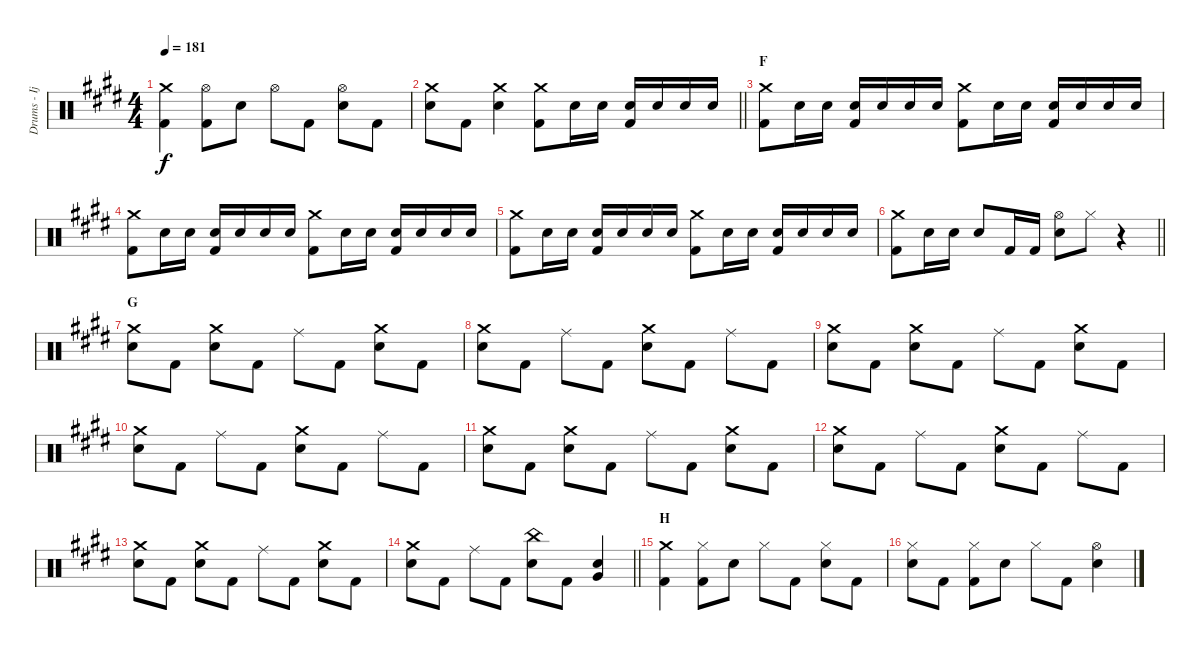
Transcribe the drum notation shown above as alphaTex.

\track ("Drums - Ijichi" "Drums - Ij") {instrument percussion}
\staff {score}
\articulation defaults
\ts (4 4)
\tempo 181
\clef neutral
\ks e
("Crash medium (hit)" "Kick (hit) 2").4{dy f} ("Hi-Hat (open)" "Kick (hit) 2").8 "Electric Snare (hit)".8 "Hi-Hat (open)".8 "Kick (hit) 2".8 ("Hi-Hat (open)" "Electric Snare (hit)").8 "Kick (hit) 2".8 |
\barLineRight lightlight
("Crash medium (hit)" "Electric Snare (hit)").8 "Kick (hit) 2".8 ("Crash medium (hit)" "Electric Snare (hit)").4 ("Crash medium (hit)" "Kick (hit) 2").8 "Electric Snare (hit)".16 "Electric Snare (hit)".16 ("Electric Snare (hit)" "Kick (hit) 2").16 "Electric Snare (hit)".16 "Electric Snare (hit)".16 "Electric Snare (hit)".16 |
\section ("" "F")
("Crash medium (hit)" "Kick (hit) 2").8 "Electric Snare (hit)".16 "Electric Snare (hit)".16 ("Electric Snare (hit)" "Kick (hit) 2").16 "Electric Snare (hit)".16 "Electric Snare (hit)".16 "Electric Snare (hit)".16 ("Crash medium (hit)" "Kick (hit) 2").8 "Electric Snare (hit)".16 "Electric Snare (hit)".16 ("Electric Snare (hit)" "Kick (hit) 2").16 "Electric Snare (hit)".16 "Electric Snare (hit)".16 "Electric Snare (hit)".16 |
("Crash medium (hit)" "Kick (hit) 2").8 "Electric Snare (hit)".16 "Electric Snare (hit)".16 ("Electric Snare (hit)" "Kick (hit) 2").16 "Electric Snare (hit)".16 "Electric Snare (hit)".16 "Electric Snare (hit)".16 ("Crash medium (hit)" "Kick (hit) 2").8 "Electric Snare (hit)".16 "Electric Snare (hit)".16 ("Electric Snare (hit)" "Kick (hit) 2").16 "Electric Snare (hit)".16 "Electric Snare (hit)".16 "Electric Snare (hit)".16 |
("Crash medium (hit)" "Kick (hit) 2").8 "Electric Snare (hit)".16 "Electric Snare (hit)".16 ("Electric Snare (hit)" "Kick (hit) 2").16 "Electric Snare (hit)".16 "Electric Snare (hit)".16 "Electric Snare (hit)".16 ("Crash medium (hit)" "Kick (hit) 2").8 "Electric Snare (hit)".16 "Electric Snare (hit)".16 ("Electric Snare (hit)" "Kick (hit) 2").16 "Electric Snare (hit)".16 "Electric Snare (hit)".16 "Electric Snare (hit)".16 |
\barLineRight lightlight
("Crash medium (hit)" "Kick (hit) 2").8 "Electric Snare (hit)".16 "Electric Snare (hit)".16 "Electric Snare (hit)".8 "Kick (hit) 2".16 "Kick (hit) 2".16 ("Hi-Hat (open)" "Electric Snare (hit)").8 "Hi-Hat (closed)".8 r.4 |
\section ("" "G")
("Crash medium (hit)" "Electric Snare (hit)").8 "Kick (hit) 2".8 ("Crash medium (hit)" "Electric Snare (hit)").8 "Kick (hit) 2".8 "Ride (middle)".8 "Kick (hit) 2".8 ("Crash medium (hit)" "Electric Snare (hit)").8 "Kick (hit) 2".8 |
("Crash medium (hit)" "Electric Snare (hit)").8 "Kick (hit) 2".8 "Ride (middle)".8 "Kick (hit) 2".8 ("Crash medium (hit)" "Electric Snare (hit)").8 "Kick (hit) 2".8 "Ride (middle)".8 "Kick (hit) 2".8 |
("Crash medium (hit)" "Electric Snare (hit)").8 "Kick (hit) 2".8 ("Crash medium (hit)" "Electric Snare (hit)").8 "Kick (hit) 2".8 "Ride (middle)".8 "Kick (hit) 2".8 ("Crash medium (hit)" "Electric Snare (hit)").8 "Kick (hit) 2".8 |
("Crash medium (hit)" "Electric Snare (hit)").8 "Kick (hit) 2".8 "Ride (middle)".8 "Kick (hit) 2".8 ("Crash medium (hit)" "Electric Snare (hit)").8 "Kick (hit) 2".8 "Ride (middle)".8 "Kick (hit) 2".8 |
("Crash medium (hit)" "Electric Snare (hit)").8 "Kick (hit) 2".8 ("Crash medium (hit)" "Electric Snare (hit)").8 "Kick (hit) 2".8 "Ride (middle)".8 "Kick (hit) 2".8 ("Crash medium (hit)" "Electric Snare (hit)").8 "Kick (hit) 2".8 |
("Crash medium (hit)" "Electric Snare (hit)").8 "Kick (hit) 2".8 "Ride (middle)".8 "Kick (hit) 2".8 ("Crash medium (hit)" "Electric Snare (hit)").8 "Kick (hit) 2".8 "Ride (middle)".8 "Kick (hit) 2".8 |
("Crash medium (hit)" "Electric Snare (hit)").8 "Kick (hit) 2".8 ("Crash medium (hit)" "Electric Snare (hit)").8 "Kick (hit) 2".8 "Ride (middle)".8 "Kick (hit) 2".8 ("Crash medium (hit)" "Electric Snare (hit)").8 "Kick (hit) 2".8 |
\barLineRight lightlight
("Crash medium (hit)" "Electric Snare (hit)").8 "Kick (hit) 2".8 "Ride (middle)".8 "Kick (hit) 2".8 ("China (hit)" "Electric Snare (hit)").8 "Kick (hit) 2".8 ("Electric Snare (hit)" "Very Low Tom (hit)").4 |
\section ("" "H")
("Crash medium (hit)" "Kick (hit) 2").4 ("Hi-Hat (closed)" "Kick (hit) 2").8 "Electric Snare (hit)".8 "Hi-Hat (closed)".8 "Kick (hit) 2".8 ("Hi-Hat (closed)" "Electric Snare (hit)").8 "Kick (hit) 2".8 |
("Hi-Hat (closed)" "Electric Snare (hit)").8 "Kick (hit) 2".8 ("Hi-Hat (closed)" "Kick (hit) 2").8 "Electric Snare (hit)".8 "Hi-Hat (closed)".8 "Kick (hit) 2".8 ("Hi-Hat (open)" "Electric Snare (hit)").4
